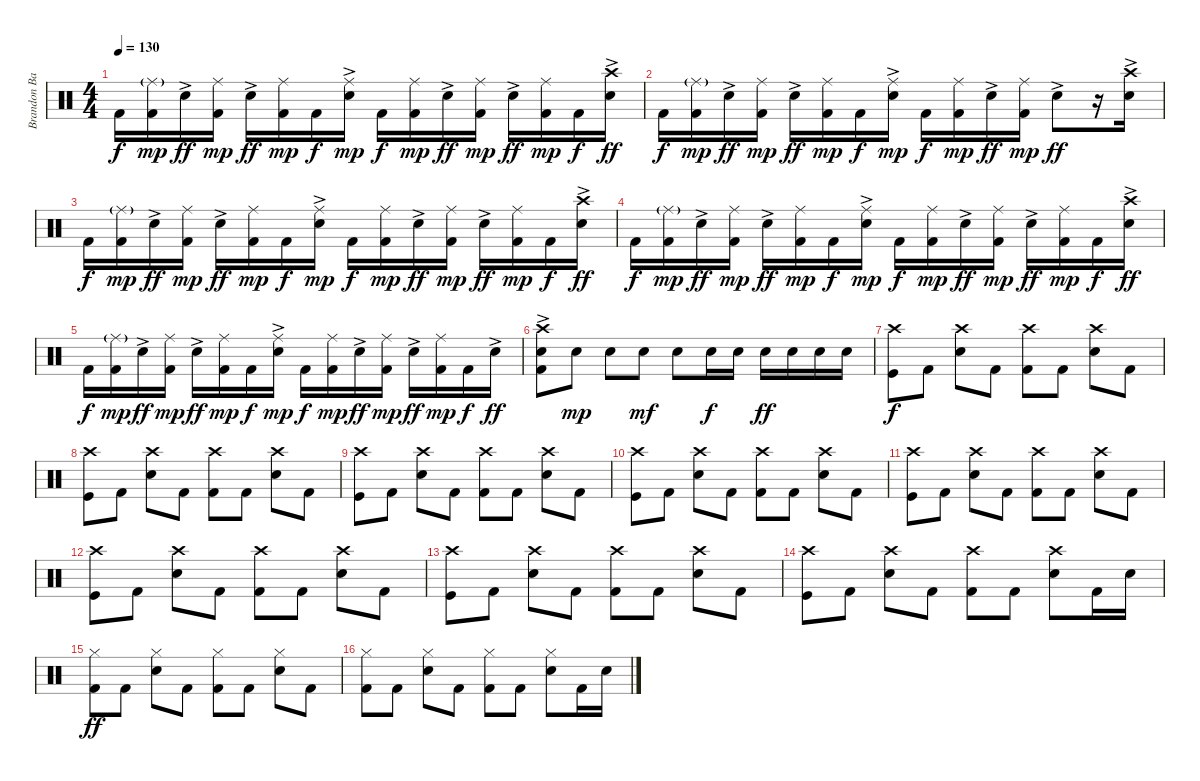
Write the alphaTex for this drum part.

\track ("Brandon Barnes - Drums" "Brandon Ba") {instrument percussion}
\staff {score}
\articulation defaults
\ts (4 4)
\tempo 130
\clef neutral
\ks c "Kick (hit) 2".16{dy f}
("Kick (hit) 2" "Ride (middle)"{g}).16{dy mp} "Snare (hit) 2"{ac}.16{dy ff} ("Kick (hit) 2" "Ride (middle)").16{dy mp} "Snare (hit) 2"{ac}.16{dy ff} ("Kick (hit) 2" "Ride (middle)").16{dy mp} "Kick (hit) 2".16{dy f} ("Snare (hit) 2"{ac} "Ride (middle)").16{dy mp} "Kick (hit) 2".16{dy f} ("Kick (hit) 2" "Ride (middle)").16{dy mp} "Snare (hit) 2"{ac}.16{dy ff} ("Kick (hit) 2" "Ride (middle)").16{dy mp} "Snare (hit) 2"{ac}.16{dy ff} ("Kick (hit) 2" "Ride (middle)").16{dy mp} "Kick (hit) 2".16{dy f} ("Crash high (hit)"{ac} "Snare (hit) 2"{ac}).16{dy ff} |
"Kick (hit) 2".16{dy f} ("Kick (hit) 2" "Ride (middle)"{g}).16{dy mp} "Snare (hit) 2"{ac}.16{dy ff} ("Kick (hit) 2" "Ride (middle)").16{dy mp} "Snare (hit) 2"{ac}.16{dy ff} ("Kick (hit) 2" "Ride (middle)").16{dy mp} "Kick (hit) 2".16{dy f} ("Snare (hit) 2"{ac} "Ride (middle)").16{dy mp} "Kick (hit) 2".16{dy f} ("Kick (hit) 2" "Ride (middle)").16{dy mp} "Snare (hit) 2"{ac}.16{dy ff} ("Kick (hit) 2" "Ride (middle)").16{dy mp} "Snare (hit) 2"{ac}.8{dy ff} r.16 ("Crash high (hit)"{ac} "Snare (hit) 2"{ac}).16 |
"Kick (hit) 2".16{dy f} ("Kick (hit) 2" "Ride (middle)"{g}).16{dy mp} "Snare (hit) 2"{ac}.16{dy ff} ("Kick (hit) 2" "Ride (middle)").16{dy mp} "Snare (hit) 2"{ac}.16{dy ff} ("Kick (hit) 2" "Ride (middle)").16{dy mp} "Kick (hit) 2".16{dy f} ("Snare (hit) 2"{ac} "Ride (middle)").16{dy mp} "Kick (hit) 2".16{dy f} ("Kick (hit) 2" "Ride (middle)").16{dy mp} "Snare (hit) 2"{ac}.16{dy ff} ("Kick (hit) 2" "Ride (middle)").16{dy mp} "Snare (hit) 2"{ac}.16{dy ff} ("Kick (hit) 2" "Ride (middle)").16{dy mp} "Kick (hit) 2".16{dy f} ("Crash high (hit)"{ac} "Snare (hit) 2"{ac}).16{dy ff} |
"Kick (hit) 2".16{dy f} ("Kick (hit) 2" "Ride (middle)"{g}).16{dy mp} "Snare (hit) 2"{ac}.16{dy ff} ("Kick (hit) 2" "Ride (middle)").16{dy mp} "Snare (hit) 2"{ac}.16{dy ff} ("Kick (hit) 2" "Ride (middle)").16{dy mp} "Kick (hit) 2".16{dy f} ("Snare (hit) 2"{ac} "Ride (middle)").16{dy mp} "Kick (hit) 2".16{dy f} ("Kick (hit) 2" "Ride (middle)").16{dy mp} "Snare (hit) 2"{ac}.16{dy ff} ("Kick (hit) 2" "Ride (middle)").16{dy mp} "Snare (hit) 2"{ac}.16{dy ff} ("Kick (hit) 2" "Ride (middle)").16{dy mp} "Kick (hit) 2".16{dy f} ("Crash high (hit)"{ac} "Snare (hit) 2"{ac}).16{dy ff} |
"Kick (hit) 2".16{dy f} ("Kick (hit) 2" "Ride (middle)"{g}).16{dy mp} "Snare (hit) 2"{ac}.16{dy ff} ("Kick (hit) 2" "Ride (middle)").16{dy mp} "Snare (hit) 2"{ac}.16{dy ff} ("Kick (hit) 2" "Ride (middle)").16{dy mp} "Kick (hit) 2".16{dy f} ("Snare (hit) 2"{ac} "Ride (middle)").16{dy mp} "Kick (hit) 2".16{dy f} ("Kick (hit) 2" "Ride (middle)").16{dy mp} "Snare (hit) 2"{ac}.16{dy ff} ("Kick (hit) 2" "Ride (middle)").16{dy mp} "Snare (hit) 2"{ac}.16{dy ff} ("Kick (hit) 2" "Ride (middle)").16{dy mp} "Kick (hit) 2".16{dy f} "Snare (hit) 2"{ac}.16{dy ff} |
("Snare (hit) 2" "Kick (hit) 2" "Crash high (hit)"{ac}).8 "Snare (hit) 2".8{dy mp} "Snare (hit) 2".8 "Snare (hit) 2".8{dy mf} "Snare (hit) 2".8 "Snare (hit) 2".16{dy f} "Snare (hit) 2".16 "Snare (hit) 2".16{dy ff} "Snare (hit) 2".16 "Snare (hit) 2".16 "Snare (hit) 2".16 |
("Crash high (hit)" "Kick (hit)").8{dy f} "Kick (hit) 2".8 ("Snare (hit) 2" "Crash high (hit)").8 "Kick (hit) 2".8 ("Kick (hit) 2" "Crash high (hit)").8 "Kick (hit) 2".8 ("Electric Snare (hit)" "Crash high (hit)").8 "Kick (hit) 2".8 |
("Crash high (hit)" "Kick (hit)").8 "Kick (hit) 2".8 ("Snare (hit) 2" "Crash high (hit)").8 "Kick (hit) 2".8 ("Kick (hit) 2" "Crash high (hit)").8 "Kick (hit) 2".8 ("Electric Snare (hit)" "Crash high (hit)").8 "Kick (hit) 2".8 |
("Crash high (hit)" "Kick (hit)").8 "Kick (hit) 2".8 ("Snare (hit) 2" "Crash high (hit)").8 "Kick (hit) 2".8 ("Kick (hit) 2" "Crash high (hit)").8 "Kick (hit) 2".8 ("Electric Snare (hit)" "Crash high (hit)").8 "Kick (hit) 2".8 |
("Crash high (hit)" "Kick (hit)").8 "Kick (hit) 2".8 ("Snare (hit) 2" "Crash high (hit)").8 "Kick (hit) 2".8 ("Kick (hit) 2" "Crash high (hit)").8 "Kick (hit) 2".8 ("Electric Snare (hit)" "Crash high (hit)").8 "Kick (hit) 2".8 |
("Crash high (hit)" "Kick (hit)").8 "Kick (hit) 2".8 ("Snare (hit) 2" "Crash high (hit)").8 "Kick (hit) 2".8 ("Kick (hit) 2" "Crash high (hit)").8 "Kick (hit) 2".8 ("Electric Snare (hit)" "Crash high (hit)").8 "Kick (hit) 2".8 |
("Crash high (hit)" "Kick (hit)").8 "Kick (hit) 2".8 ("Snare (hit) 2" "Crash high (hit)").8 "Kick (hit) 2".8 ("Kick (hit) 2" "Crash high (hit)").8 "Kick (hit) 2".8 ("Electric Snare (hit)" "Crash high (hit)").8 "Kick (hit) 2".8 |
("Crash high (hit)" "Kick (hit)").8 "Kick (hit) 2".8 ("Snare (hit) 2" "Crash high (hit)").8 "Kick (hit) 2".8 ("Kick (hit) 2" "Crash high (hit)").8 "Kick (hit) 2".8 ("Electric Snare (hit)" "Crash high (hit)").8 "Kick (hit) 2".8 |
("Crash high (hit)" "Kick (hit)").8 "Kick (hit) 2".8 ("Snare (hit) 2" "Crash high (hit)").8 "Kick (hit) 2".8 ("Kick (hit) 2" "Crash high (hit)").8 "Kick (hit) 2".8 ("Electric Snare (hit)" "Crash high (hit)").8 "Kick (hit) 2".16 "Snare (hit) 2".16 |
("Hi-Hat (closed)" "Kick (hit) 2").8{dy ff} "Kick (hit) 2".8 ("Snare (hit) 2" "Hi-Hat (closed)").8 "Kick (hit) 2".8 ("Kick (hit) 2" "Hi-Hat (closed)").8 "Kick (hit) 2".8 ("Snare (hit) 2" "Hi-Hat (closed)").8 "Kick (hit) 2".8 |
("Hi-Hat (closed)" "Kick (hit) 2").8 "Kick (hit) 2".8 ("Snare (hit) 2" "Hi-Hat (closed)").8 "Kick (hit) 2".8 ("Kick (hit) 2" "Hi-Hat (closed)").8 "Kick (hit) 2".8 ("Snare (hit) 2" "Hi-Hat (closed)").8 "Kick (hit) 2".16 "Snare (hit) 2".16
